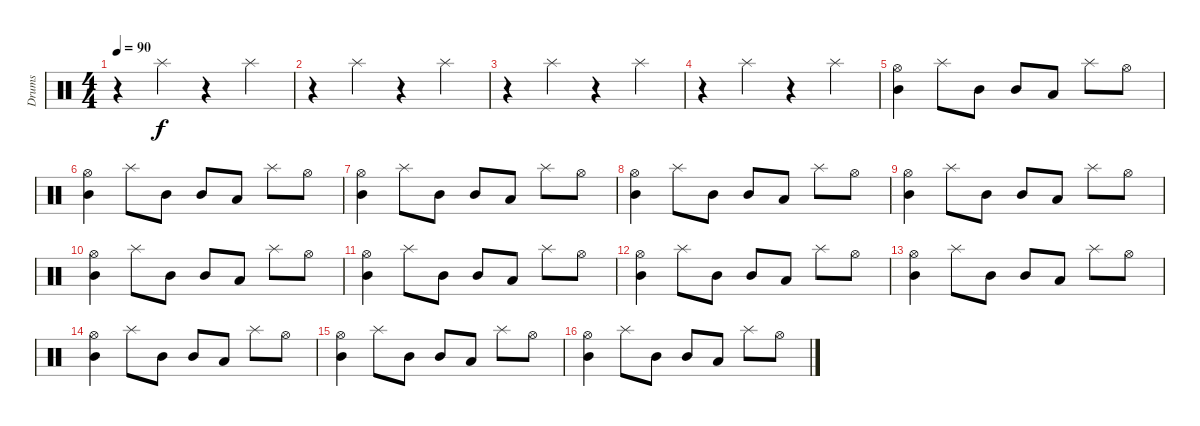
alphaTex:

\track ("Drums" "Drums") {instrument percussion}
\staff {score}
\articulation defaults
\ts (4 4)
\tempo 90
\clef neutral
\ks c
r.4{dy f} "Splash (hit)".4 r.4 "Splash (hit)".4 |
r.4 "Splash (hit)".4 r.4 "Splash (hit)".4 |
r.4 "Splash (hit)".4 r.4 "Splash (hit)".4 |
r.4 "Splash (hit)".4 r.4 "Splash (hit)".4 |
("Hi-Hat (open)" "Mid Tom (hit)").4 "Splash (hit)".8 "Mid Tom (hit)".8 "Mid Tom (hit)".8 "Low Tom (hit)".8 "Splash (hit)".8 "Hi-Hat (open)".8 |
("Hi-Hat (open)" "Mid Tom (hit)").4 "Splash (hit)".8 "Mid Tom (hit)".8 "Mid Tom (hit)".8 "Low Tom (hit)".8 "Splash (hit)".8 "Hi-Hat (open)".8 |
("Hi-Hat (open)" "Mid Tom (hit)").4 "Splash (hit)".8 "Mid Tom (hit)".8 "Mid Tom (hit)".8 "Low Tom (hit)".8 "Splash (hit)".8 "Hi-Hat (open)".8 |
("Hi-Hat (open)" "Mid Tom (hit)").4 "Splash (hit)".8 "Mid Tom (hit)".8 "Mid Tom (hit)".8 "Low Tom (hit)".8 "Splash (hit)".8 "Hi-Hat (open)".8 |
("Hi-Hat (open)" "Mid Tom (hit)").4 "Splash (hit)".8 "Mid Tom (hit)".8 "Mid Tom (hit)".8 "Low Tom (hit)".8 "Splash (hit)".8 "Hi-Hat (open)".8 |
("Hi-Hat (open)" "Mid Tom (hit)").4 "Splash (hit)".8 "Mid Tom (hit)".8 "Mid Tom (hit)".8 "Low Tom (hit)".8 "Splash (hit)".8 "Hi-Hat (open)".8 |
("Hi-Hat (open)" "Mid Tom (hit)").4 "Splash (hit)".8 "Mid Tom (hit)".8 "Mid Tom (hit)".8 "Low Tom (hit)".8 "Splash (hit)".8 "Hi-Hat (open)".8 |
("Hi-Hat (open)" "Mid Tom (hit)").4 "Splash (hit)".8 "Mid Tom (hit)".8 "Mid Tom (hit)".8 "Low Tom (hit)".8 "Splash (hit)".8 "Hi-Hat (open)".8 |
("Hi-Hat (open)" "Mid Tom (hit)").4 "Splash (hit)".8 "Mid Tom (hit)".8 "Mid Tom (hit)".8 "Low Tom (hit)".8 "Splash (hit)".8 "Hi-Hat (open)".8 |
("Hi-Hat (open)" "Mid Tom (hit)").4 "Splash (hit)".8 "Mid Tom (hit)".8 "Mid Tom (hit)".8 "Low Tom (hit)".8 "Splash (hit)".8 "Hi-Hat (open)".8 |
("Hi-Hat (open)" "Mid Tom (hit)").4 "Splash (hit)".8 "Mid Tom (hit)".8 "Mid Tom (hit)".8 "Low Tom (hit)".8 "Splash (hit)".8 "Hi-Hat (open)".8 |
("Hi-Hat (open)" "Mid Tom (hit)").4 "Splash (hit)".8 "Mid Tom (hit)".8 "Mid Tom (hit)".8 "Low Tom (hit)".8 "Splash (hit)".8 "Hi-Hat (open)".8
